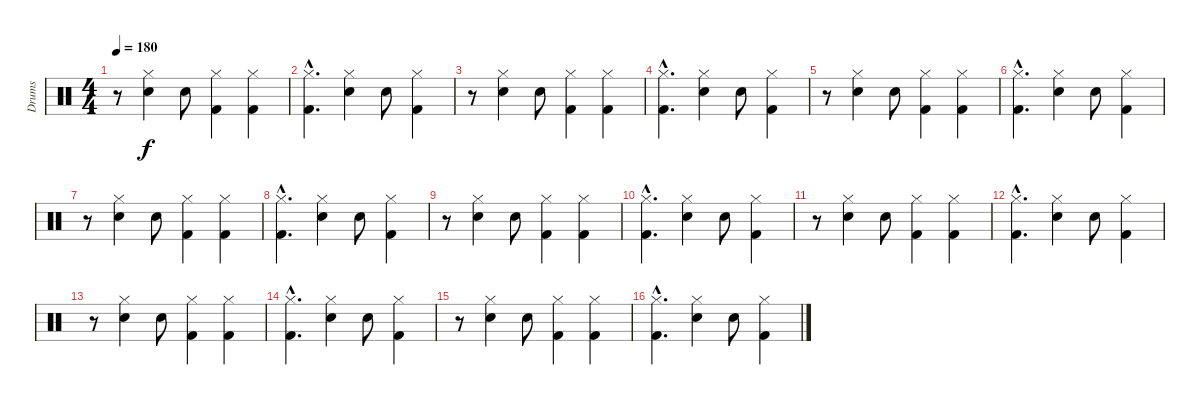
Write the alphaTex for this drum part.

\track ("Drums" "Drums") {instrument percussion}
\staff {score}
\articulation defaults
\ts (4 4)
\tempo 180
\clef neutral
\ks c
r.8{dy f} ("Hi-Hat (closed)" "Snare (hit) 2").4 "Snare (hit) 2".8 ("Hi-Hat (closed)" "Kick (hit) 2").4 ("Hi-Hat (closed)" "Kick (hit) 2").4 |
("Hi-Hat (closed)"{hac} "Kick (hit) 2"{hac}).4{d} ("Hi-Hat (closed)" "Snare (hit) 2").4 "Snare (hit) 2".8 ("Hi-Hat (closed)" "Kick (hit) 2").4 |
r.8 ("Hi-Hat (closed)" "Snare (hit) 2").4 "Snare (hit) 2".8 ("Hi-Hat (closed)" "Kick (hit) 2").4 ("Hi-Hat (closed)" "Kick (hit) 2").4 |
("Hi-Hat (closed)"{hac} "Kick (hit) 2"{hac}).4{d} ("Hi-Hat (closed)" "Snare (hit) 2").4 "Snare (hit) 2".8 ("Hi-Hat (closed)" "Kick (hit) 2").4 |
r.8 ("Hi-Hat (closed)" "Snare (hit) 2").4 "Snare (hit) 2".8 ("Hi-Hat (closed)" "Kick (hit) 2").4 ("Hi-Hat (closed)" "Kick (hit) 2").4 |
("Hi-Hat (closed)"{hac} "Kick (hit) 2"{hac}).4{d} ("Hi-Hat (closed)" "Snare (hit) 2").4 "Snare (hit) 2".8 ("Hi-Hat (closed)" "Kick (hit) 2").4 |
r.8 ("Hi-Hat (closed)" "Snare (hit) 2").4 "Snare (hit) 2".8 ("Hi-Hat (closed)" "Kick (hit) 2").4 ("Hi-Hat (closed)" "Kick (hit) 2").4 |
("Hi-Hat (closed)"{hac} "Kick (hit) 2"{hac}).4{d} ("Hi-Hat (closed)" "Snare (hit) 2").4 "Snare (hit) 2".8 ("Hi-Hat (closed)" "Kick (hit) 2").4 |
r.8 ("Hi-Hat (closed)" "Snare (hit) 2").4 "Snare (hit) 2".8 ("Hi-Hat (closed)" "Kick (hit) 2").4 ("Hi-Hat (closed)" "Kick (hit) 2").4 |
("Hi-Hat (closed)"{hac} "Kick (hit) 2"{hac}).4{d} ("Hi-Hat (closed)" "Snare (hit) 2").4 "Snare (hit) 2".8 ("Hi-Hat (closed)" "Kick (hit) 2").4 |
r.8 ("Hi-Hat (closed)" "Snare (hit) 2").4 "Snare (hit) 2".8 ("Hi-Hat (closed)" "Kick (hit) 2").4 ("Hi-Hat (closed)" "Kick (hit) 2").4 |
("Hi-Hat (closed)"{hac} "Kick (hit) 2"{hac}).4{d} ("Hi-Hat (closed)" "Snare (hit) 2").4 "Snare (hit) 2".8 ("Hi-Hat (closed)" "Kick (hit) 2").4 |
r.8 ("Hi-Hat (closed)" "Snare (hit) 2").4 "Snare (hit) 2".8 ("Hi-Hat (closed)" "Kick (hit) 2").4 ("Hi-Hat (closed)" "Kick (hit) 2").4 |
("Hi-Hat (closed)"{hac} "Kick (hit) 2"{hac}).4{d} ("Hi-Hat (closed)" "Snare (hit) 2").4 "Snare (hit) 2".8 ("Hi-Hat (closed)" "Kick (hit) 2").4 |
r.8 ("Hi-Hat (closed)" "Snare (hit) 2").4 "Snare (hit) 2".8 ("Hi-Hat (closed)" "Kick (hit) 2").4 ("Hi-Hat (closed)" "Kick (hit) 2").4 |
("Hi-Hat (closed)"{hac} "Kick (hit) 2"{hac}).4{d} ("Hi-Hat (closed)" "Snare (hit) 2").4 "Snare (hit) 2".8 ("Hi-Hat (closed)" "Kick (hit) 2").4
